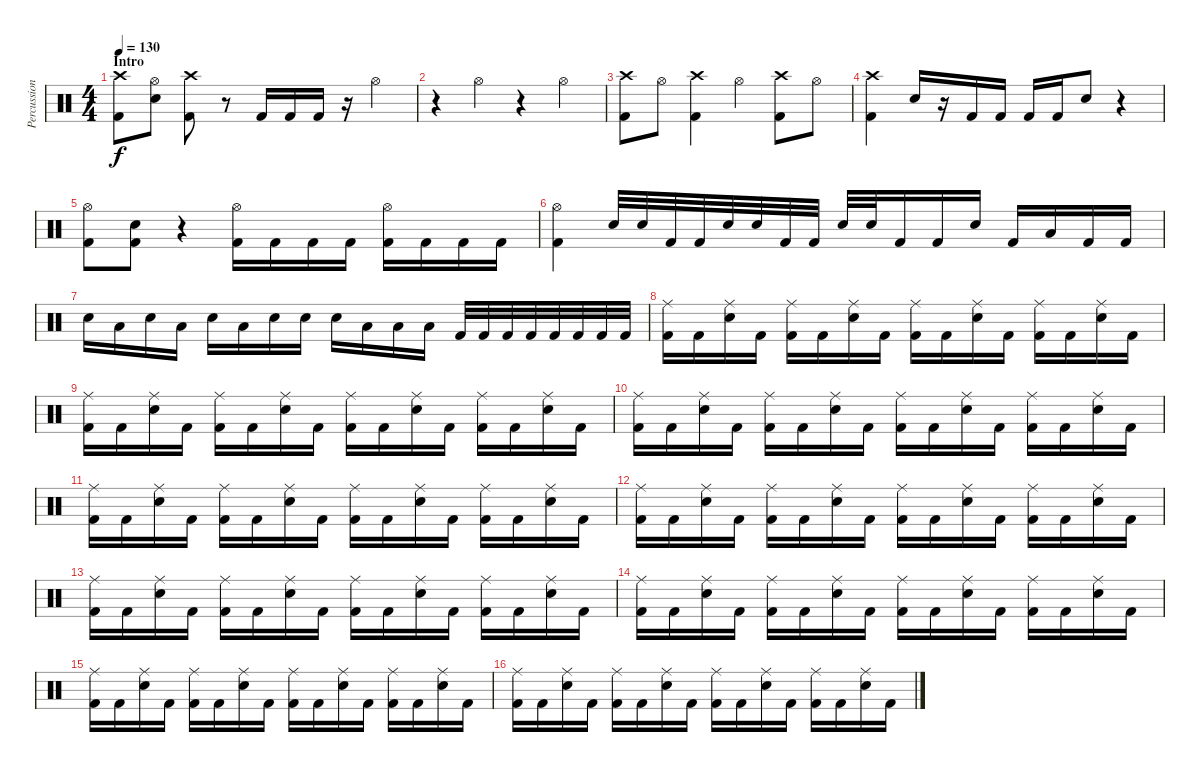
\track ("Percussion" "Percussion") {instrument percussion}
\staff {score}
\articulation defaults
\ts (4 4)
\section ("" "Intro")
\tempo 130
\clef neutral
\ks c
("Crash high (hit)" "Kick (hit) 2").8{dy f} ("Hi-Hat (open)" "Snare (hit) 2").8 ("Crash high (hit)" "Kick (hit) 2").8 r.8 "Kick (hit) 2".16 "Kick (hit) 2".16 "Kick (hit) 2".16 r.16 "Hi-Hat (open)".4 |
r.4 "Hi-Hat (open)".4 r.4 "Hi-Hat (open)".4 |
("Crash high (hit)" "Kick (hit) 2").8 "Hi-Hat (open)".8 ("Crash high (hit)" "Kick (hit) 2").4 "Hi-Hat (open)".4 ("Crash high (hit)" "Kick (hit) 2").8 "Hi-Hat (open)".8 |
("Crash high (hit)" "Kick (hit) 2").4 "Snare (hit) 2".16 r.16 "Kick (hit) 2".16 "Kick (hit) 2".16 "Kick (hit) 2".16 "Kick (hit) 2".16 "Snare (hit) 2".8 r.4 |
("Hi-Hat (open)" "Kick (hit) 2").8 ("Snare (hit) 2" "Kick (hit) 2").8 r.4 ("Hi-Hat (open)" "Kick (hit) 2").16 "Kick (hit) 2".16 "Kick (hit) 2".16 "Kick (hit) 2".16 ("Hi-Hat (open)" "Kick (hit) 2").16 "Kick (hit) 2".16 "Kick (hit) 2".16 "Kick (hit) 2".16 |
("Hi-Hat (open)" "Kick (hit) 2").4 "Snare (hit) 2".32 "Snare (hit) 2".32 "Kick (hit) 2".32 "Kick (hit) 2".32 "Snare (hit) 2".32 "Snare (hit) 2".32 "Kick (hit) 2".32 "Kick (hit) 2".32 "Snare (hit) 2".32 "Snare (hit) 2".32 "Kick (hit) 2".16 "Kick (hit) 2".16 "Snare (hit) 2".16 "Kick (hit) 2".16 "Low Tom (hit)".16 "Kick (hit) 2".16 "Kick (hit) 2".16 |
"Snare (hit) 2".16 "Low Tom (hit)".16 "Snare (hit) 2".16 "Low Tom (hit)".16 "Snare (hit) 2".16 "Low Tom (hit)".16 "Snare (hit) 2".16 "Snare (hit) 2".16 "Snare (hit) 2".16 "Low Tom (hit)".16 "Low Tom (hit)".16 "Low Tom (hit)".16 "Kick (hit) 2".32 "Kick (hit) 2".32 "Kick (hit) 2".32 "Kick (hit) 2".32 "Kick (hit) 2".32 "Kick (hit) 2".32 "Kick (hit) 2".32 "Kick (hit) 2".32 |
("Ride (middle)" "Kick (hit) 2").16 "Kick (hit) 2".16 ("Ride (middle)" "Snare (hit) 2").16 "Kick (hit) 2".16 ("Ride (middle)" "Kick (hit) 2").16 "Kick (hit) 2".16 ("Ride (middle)" "Snare (hit) 2").16 "Kick (hit) 2".16 ("Ride (middle)" "Kick (hit) 2").16 "Kick (hit) 2".16 ("Ride (middle)" "Snare (hit) 2").16 "Kick (hit) 2".16 ("Ride (middle)" "Kick (hit) 2").16 "Kick (hit) 2".16 ("Ride (middle)" "Snare (hit) 2").16 "Kick (hit) 2".16 |
("Ride (middle)" "Kick (hit) 2").16 "Kick (hit) 2".16 ("Ride (middle)" "Snare (hit) 2").16 "Kick (hit) 2".16 ("Ride (middle)" "Kick (hit) 2").16 "Kick (hit) 2".16 ("Ride (middle)" "Snare (hit) 2").16 "Kick (hit) 2".16 ("Ride (middle)" "Kick (hit) 2").16 "Kick (hit) 2".16 ("Ride (middle)" "Snare (hit) 2").16 "Kick (hit) 2".16 ("Ride (middle)" "Kick (hit) 2").16 "Kick (hit) 2".16 ("Ride (middle)" "Snare (hit) 2").16 "Kick (hit) 2".16 |
("Ride (middle)" "Kick (hit) 2").16 "Kick (hit) 2".16 ("Ride (middle)" "Snare (hit) 2").16 "Kick (hit) 2".16 ("Ride (middle)" "Kick (hit) 2").16 "Kick (hit) 2".16 ("Ride (middle)" "Snare (hit) 2").16 "Kick (hit) 2".16 ("Ride (middle)" "Kick (hit) 2").16 "Kick (hit) 2".16 ("Ride (middle)" "Snare (hit) 2").16 "Kick (hit) 2".16 ("Ride (middle)" "Kick (hit) 2").16 "Kick (hit) 2".16 ("Ride (middle)" "Snare (hit) 2").16 "Kick (hit) 2".16 |
("Ride (middle)" "Kick (hit) 2").16 "Kick (hit) 2".16 ("Ride (middle)" "Snare (hit) 2").16 "Kick (hit) 2".16 ("Ride (middle)" "Kick (hit) 2").16 "Kick (hit) 2".16 ("Ride (middle)" "Snare (hit) 2").16 "Kick (hit) 2".16 ("Ride (middle)" "Kick (hit) 2").16 "Kick (hit) 2".16 ("Ride (middle)" "Snare (hit) 2").16 "Kick (hit) 2".16 ("Ride (middle)" "Kick (hit) 2").16 "Kick (hit) 2".16 ("Ride (middle)" "Snare (hit) 2").16 "Kick (hit) 2".16 |
("Ride (middle)" "Kick (hit) 2").16 "Kick (hit) 2".16 ("Ride (middle)" "Snare (hit) 2").16 "Kick (hit) 2".16 ("Ride (middle)" "Kick (hit) 2").16 "Kick (hit) 2".16 ("Ride (middle)" "Snare (hit) 2").16 "Kick (hit) 2".16 ("Ride (middle)" "Kick (hit) 2").16 "Kick (hit) 2".16 ("Ride (middle)" "Snare (hit) 2").16 "Kick (hit) 2".16 ("Ride (middle)" "Kick (hit) 2").16 "Kick (hit) 2".16 ("Ride (middle)" "Snare (hit) 2").16 "Kick (hit) 2".16 |
("Ride (middle)" "Kick (hit) 2").16 "Kick (hit) 2".16 ("Ride (middle)" "Snare (hit) 2").16 "Kick (hit) 2".16 ("Ride (middle)" "Kick (hit) 2").16 "Kick (hit) 2".16 ("Ride (middle)" "Snare (hit) 2").16 "Kick (hit) 2".16 ("Ride (middle)" "Kick (hit) 2").16 "Kick (hit) 2".16 ("Ride (middle)" "Snare (hit) 2").16 "Kick (hit) 2".16 ("Ride (middle)" "Kick (hit) 2").16 "Kick (hit) 2".16 ("Ride (middle)" "Snare (hit) 2").16 "Kick (hit) 2".16 |
("Ride (middle)" "Kick (hit) 2").16 "Kick (hit) 2".16 ("Ride (middle)" "Snare (hit) 2").16 "Kick (hit) 2".16 ("Ride (middle)" "Kick (hit) 2").16 "Kick (hit) 2".16 ("Ride (middle)" "Snare (hit) 2").16 "Kick (hit) 2".16 ("Ride (middle)" "Kick (hit) 2").16 "Kick (hit) 2".16 ("Ride (middle)" "Snare (hit) 2").16 "Kick (hit) 2".16 ("Ride (middle)" "Kick (hit) 2").16 "Kick (hit) 2".16 ("Ride (middle)" "Snare (hit) 2").16 "Kick (hit) 2".16 |
("Ride (middle)" "Kick (hit) 2").16 "Kick (hit) 2".16 ("Ride (middle)" "Snare (hit) 2").16 "Kick (hit) 2".16 ("Ride (middle)" "Kick (hit) 2").16 "Kick (hit) 2".16 ("Ride (middle)" "Snare (hit) 2").16 "Kick (hit) 2".16 ("Ride (middle)" "Kick (hit) 2").16 "Kick (hit) 2".16 ("Ride (middle)" "Snare (hit) 2").16 "Kick (hit) 2".16 ("Ride (middle)" "Kick (hit) 2").16 "Kick (hit) 2".16 ("Ride (middle)" "Snare (hit) 2").16 "Kick (hit) 2".16 |
("Ride (middle)" "Kick (hit) 2").16 "Kick (hit) 2".16 ("Ride (middle)" "Snare (hit) 2").16 "Kick (hit) 2".16 ("Ride (middle)" "Kick (hit) 2").16 "Kick (hit) 2".16 ("Ride (middle)" "Snare (hit) 2").16 "Kick (hit) 2".16 ("Ride (middle)" "Kick (hit) 2").16 "Kick (hit) 2".16 ("Ride (middle)" "Snare (hit) 2").16 "Kick (hit) 2".16 ("Ride (middle)" "Kick (hit) 2").16 "Kick (hit) 2".16 ("Ride (middle)" "Snare (hit) 2").16 "Kick (hit) 2".16
